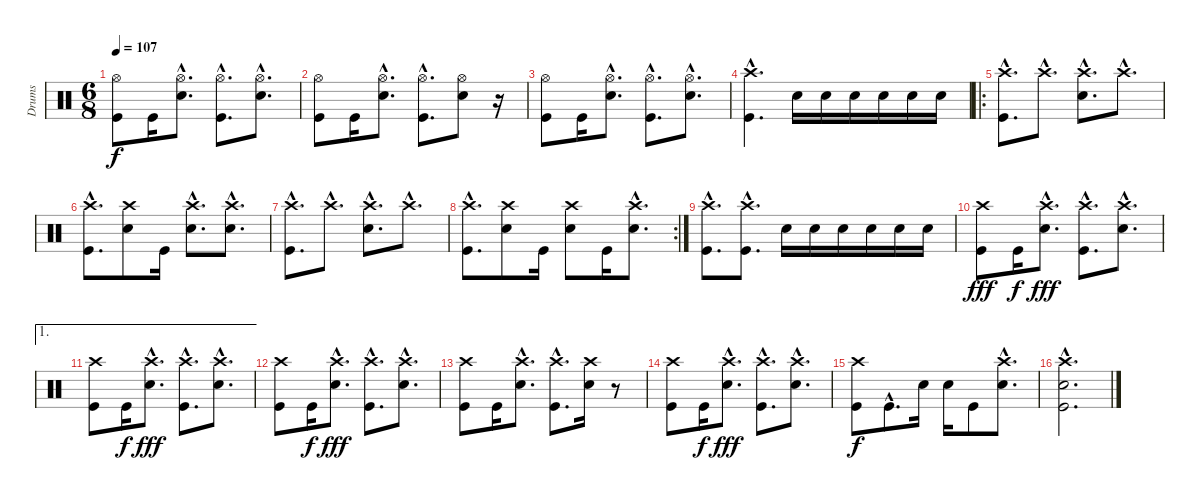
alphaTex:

\track ("Drums" "Drums") {instrument percussion}
\staff {score}
\articulation defaults
\ts (6 8)
\tempo 107
\clef neutral
\ks c
("Hi-Hat (open)" "Kick (hit)").8{dy f} "Kick (hit)".16 ("Hi-Hat (open)"{hac} "Snare (hit) 2"{hac}).8{d} ("Hi-Hat (open)"{hac} "Kick (hit)"{hac}).8{d} ("Hi-Hat (open)"{hac} "Snare (hit) 2"{hac}).8{d} |
("Hi-Hat (open)" "Kick (hit)").8 "Kick (hit)".16 ("Hi-Hat (open)"{hac} "Snare (hit) 2"{hac}).8{d} ("Hi-Hat (open)"{hac} "Kick (hit)"{hac}).8{d} ("Hi-Hat (open)" "Snare (hit) 2").8 r.16 |
("Hi-Hat (open)" "Kick (hit)").8 "Kick (hit)".16 ("Hi-Hat (open)"{hac} "Snare (hit) 2"{hac}).8{d} ("Hi-Hat (open)"{hac} "Kick (hit)"{hac}).8{d} ("Hi-Hat (open)"{hac} "Snare (hit) 2"{hac}).8{d} |
("Crash high (hit)"{hac} "Kick (hit)"{hac}).4{d} "Snare (hit) 2".16 "Snare (hit) 2".16 "Snare (hit) 2".16 "Snare (hit) 2".16 "Snare (hit) 2".16 "Snare (hit) 2".16 |
\ro
("Crash high (hit)"{hac} "Kick (hit)"{hac}).8{d} "Crash high (hit)"{hac}.8{d} ("Crash high (hit)"{hac} "Snare (hit) 2"{hac}).8{d} "Crash high (hit)"{hac}.8{d} |
("Crash high (hit)"{hac} "Kick (hit)"{hac}).8{d} ("Crash high (hit)" "Snare (hit) 2").8 "Kick (hit)".16 ("Crash high (hit)"{hac} "Snare (hit) 2"{hac}).8{d} ("Crash high (hit)"{hac} "Snare (hit) 2"{hac}).8{d} |
("Crash high (hit)"{hac} "Kick (hit)"{hac}).8{d} "Crash high (hit)"{hac}.8{d} ("Crash high (hit)"{hac} "Snare (hit) 2"{hac}).8{d} "Crash high (hit)"{hac}.8{d} |
\rc 2
("Crash high (hit)"{hac} "Kick (hit)"{hac}).8{d} ("Crash high (hit)" "Snare (hit) 2").8 "Kick (hit)".16 ("Crash high (hit)" "Snare (hit) 2").8 "Kick (hit)".16 ("Crash high (hit)"{hac} "Snare (hit) 2"{hac}).8{d} |
("Crash high (hit)"{hac} "Kick (hit)"{hac}).8{d} ("Crash high (hit)"{hac} "Kick (hit)"{hac}).8{d} "Snare (hit) 2".16 "Snare (hit) 2".16 "Snare (hit) 2".16 "Snare (hit) 2".16 "Snare (hit) 2".16 "Snare (hit) 2".16 |
("Crash high (hit)" "Kick (hit)").8{dy fff} "Kick (hit)".16{dy f} ("Crash high (hit)"{hac} "Snare (hit) 2"{hac}).8{d dy fff} ("Crash high (hit)"{hac} "Kick (hit)"{hac}).8{d} ("Crash high (hit)"{hac} "Snare (hit) 2"{hac}).8{d} |
\ae 1
("Crash high (hit)" "Kick (hit)").8 "Kick (hit)".16{dy f} ("Crash high (hit)"{hac} "Snare (hit) 2"{hac}).8{d dy fff} ("Crash high (hit)"{hac} "Kick (hit)"{hac}).8{d} ("Crash high (hit)"{hac} "Snare (hit) 2"{hac}).8{d} |
("Crash high (hit)" "Kick (hit)").8 "Kick (hit)".16{dy f} ("Crash high (hit)"{hac} "Snare (hit) 2"{hac}).8{d dy fff} ("Crash high (hit)"{hac} "Kick (hit)"{hac}).8{d} ("Crash high (hit)"{hac} "Snare (hit) 2"{hac}).8{d} |
("Crash high (hit)" "Kick (hit)").8 "Kick (hit)".16 ("Crash high (hit)"{hac} "Snare (hit) 2"{hac}).8{d} ("Crash high (hit)"{hac} "Kick (hit)"{hac}).8{d} ("Crash high (hit)" "Snare (hit) 2").16 r.8 |
("Crash high (hit)" "Kick (hit)").8 "Kick (hit)".16{dy f} ("Crash high (hit)"{hac} "Snare (hit) 2"{hac}).8{d dy fff} ("Crash high (hit)"{hac} "Kick (hit)"{hac}).8{d} ("Crash high (hit)"{hac} "Snare (hit) 2"{hac}).8{d} |
("Crash high (hit)" "Kick (hit)").8{dy f} "Kick (hit)"{hac}.8{d} "Snare (hit) 2".16 "Snare (hit) 2".16 "Kick (hit)".8 ("Crash high (hit)"{hac} "Snare (hit) 2"{hac}).8{d} |
("Crash high (hit)"{hac} "Snare (hit) 2"{hac} "Kick (hit)"{hac}).2{d}
